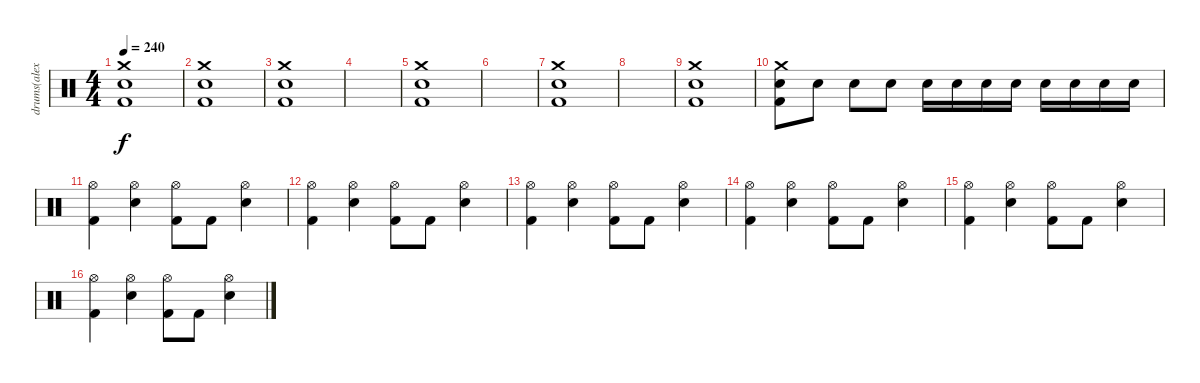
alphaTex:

\track ("drums(alex holzshwart)" "drums(alex") {instrument percussion}
\staff {score}
\articulation defaults
\ts (4 4)
\tempo 240
\clef neutral
\ks c
("Crash medium (hit)" "Electric Snare (hit)" "Kick (hit) 2").1{dy f} |
("Crash medium (hit)" "Electric Snare (hit)" "Kick (hit) 2").1 |
("Crash medium (hit)" "Electric Snare (hit)" "Kick (hit) 2").1 |
|
("Crash medium (hit)" "Electric Snare (hit)" "Kick (hit) 2").1 |
|
("Crash medium (hit)" "Electric Snare (hit)" "Kick (hit) 2").1 |
|
("Crash medium (hit)" "Electric Snare (hit)" "Kick (hit) 2").1 |
("Crash medium (hit)" "Electric Snare (hit)" "Kick (hit) 2").8 "Electric Snare (hit)".8 "Electric Snare (hit)".8 "Electric Snare (hit)".8 "Electric Snare (hit)".16 "Electric Snare (hit)".16 "Electric Snare (hit)".16 "Electric Snare (hit)".16 "Electric Snare (hit)".16 "Electric Snare (hit)".16 "Electric Snare (hit)".16 "Electric Snare (hit)".16 |
("Hi-Hat (open)" "Kick (hit) 2").4 ("Hi-Hat (open)" "Electric Snare (hit)").4 ("Hi-Hat (open)" "Kick (hit) 2").8 "Kick (hit) 2".8 ("Hi-Hat (open)" "Electric Snare (hit)").4 |
("Hi-Hat (open)" "Kick (hit) 2").4 ("Hi-Hat (open)" "Electric Snare (hit)").4 ("Hi-Hat (open)" "Kick (hit) 2").8 "Kick (hit) 2".8 ("Hi-Hat (open)" "Electric Snare (hit)").4 |
("Hi-Hat (open)" "Kick (hit) 2").4 ("Hi-Hat (open)" "Electric Snare (hit)").4 ("Hi-Hat (open)" "Kick (hit) 2").8 "Kick (hit) 2".8 ("Hi-Hat (open)" "Electric Snare (hit)").4 |
("Hi-Hat (open)" "Kick (hit) 2").4 ("Hi-Hat (open)" "Electric Snare (hit)").4 ("Hi-Hat (open)" "Kick (hit) 2").8 "Kick (hit) 2".8 ("Hi-Hat (open)" "Electric Snare (hit)").4 |
("Hi-Hat (open)" "Kick (hit) 2").4 ("Hi-Hat (open)" "Electric Snare (hit)").4 ("Hi-Hat (open)" "Kick (hit) 2").8 "Kick (hit) 2".8 ("Hi-Hat (open)" "Electric Snare (hit)").4 |
("Hi-Hat (open)" "Kick (hit) 2").4 ("Hi-Hat (open)" "Electric Snare (hit)").4 ("Hi-Hat (open)" "Kick (hit) 2").8 "Kick (hit) 2".8 ("Hi-Hat (open)" "Electric Snare (hit)").4
